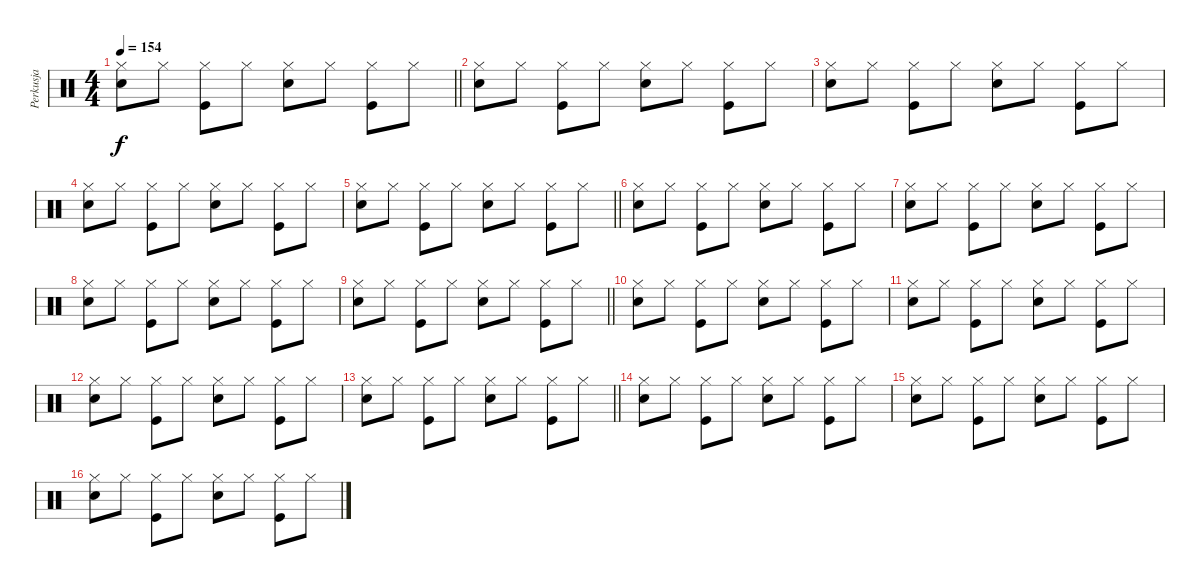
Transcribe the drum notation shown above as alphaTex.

\track ("Perkusja" "Perkusja") {instrument percussion}
\staff {score}
\articulation defaults
\ts (4 4)
\tempo 154
\clef neutral
\barLineRight lightlight
\ks c
("Hi-Hat (closed)" "Snare (hit) 2").8{dy f} "Hi-Hat (closed)".8 ("Hi-Hat (closed)" "Kick (hit)").8 "Hi-Hat (closed)".8 ("Snare (hit) 2" "Hi-Hat (closed)").8 "Hi-Hat (closed)".8 ("Hi-Hat (closed)" "Kick (hit)").8 "Hi-Hat (closed)".8 |
("Hi-Hat (closed)" "Snare (hit) 2").8 "Hi-Hat (closed)".8 ("Hi-Hat (closed)" "Kick (hit)").8 "Hi-Hat (closed)".8 ("Snare (hit) 2" "Hi-Hat (closed)").8 "Hi-Hat (closed)".8 ("Hi-Hat (closed)" "Kick (hit)").8 "Hi-Hat (closed)".8 |
("Hi-Hat (closed)" "Snare (hit) 2").8 "Hi-Hat (closed)".8 ("Hi-Hat (closed)" "Kick (hit)").8 "Hi-Hat (closed)".8 ("Snare (hit) 2" "Hi-Hat (closed)").8 "Hi-Hat (closed)".8 ("Hi-Hat (closed)" "Kick (hit)").8 "Hi-Hat (closed)".8 |
("Hi-Hat (closed)" "Snare (hit) 2").8 "Hi-Hat (closed)".8 ("Hi-Hat (closed)" "Kick (hit)").8 "Hi-Hat (closed)".8 ("Snare (hit) 2" "Hi-Hat (closed)").8 "Hi-Hat (closed)".8 ("Hi-Hat (closed)" "Kick (hit)").8 "Hi-Hat (closed)".8 |
\barLineRight lightlight
("Hi-Hat (closed)" "Snare (hit) 2").8 "Hi-Hat (closed)".8 ("Hi-Hat (closed)" "Kick (hit)").8 "Hi-Hat (closed)".8 ("Snare (hit) 2" "Hi-Hat (closed)").8 "Hi-Hat (closed)".8 ("Hi-Hat (closed)" "Kick (hit)").8 "Hi-Hat (closed)".8 |
("Hi-Hat (closed)" "Snare (hit) 2").8 "Hi-Hat (closed)".8 ("Hi-Hat (closed)" "Kick (hit)").8 "Hi-Hat (closed)".8 ("Snare (hit) 2" "Hi-Hat (closed)").8 "Hi-Hat (closed)".8 ("Hi-Hat (closed)" "Kick (hit)").8 "Hi-Hat (closed)".8 |
("Hi-Hat (closed)" "Snare (hit) 2").8 "Hi-Hat (closed)".8 ("Hi-Hat (closed)" "Kick (hit)").8 "Hi-Hat (closed)".8 ("Snare (hit) 2" "Hi-Hat (closed)").8 "Hi-Hat (closed)".8 ("Hi-Hat (closed)" "Kick (hit)").8 "Hi-Hat (closed)".8 |
("Hi-Hat (closed)" "Snare (hit) 2").8 "Hi-Hat (closed)".8 ("Hi-Hat (closed)" "Kick (hit)").8 "Hi-Hat (closed)".8 ("Snare (hit) 2" "Hi-Hat (closed)").8 "Hi-Hat (closed)".8 ("Hi-Hat (closed)" "Kick (hit)").8 "Hi-Hat (closed)".8 |
\barLineRight lightlight
("Hi-Hat (closed)" "Snare (hit) 2").8 "Hi-Hat (closed)".8 ("Hi-Hat (closed)" "Kick (hit)").8 "Hi-Hat (closed)".8 ("Snare (hit) 2" "Hi-Hat (closed)").8 "Hi-Hat (closed)".8 ("Hi-Hat (closed)" "Kick (hit)").8 "Hi-Hat (closed)".8 |
("Hi-Hat (closed)" "Snare (hit) 2").8 "Hi-Hat (closed)".8 ("Hi-Hat (closed)" "Kick (hit)").8 "Hi-Hat (closed)".8 ("Snare (hit) 2" "Hi-Hat (closed)").8 "Hi-Hat (closed)".8 ("Hi-Hat (closed)" "Kick (hit)").8 "Hi-Hat (closed)".8 |
("Hi-Hat (closed)" "Snare (hit) 2").8 "Hi-Hat (closed)".8 ("Hi-Hat (closed)" "Kick (hit)").8 "Hi-Hat (closed)".8 ("Snare (hit) 2" "Hi-Hat (closed)").8 "Hi-Hat (closed)".8 ("Hi-Hat (closed)" "Kick (hit)").8 "Hi-Hat (closed)".8 |
("Hi-Hat (closed)" "Snare (hit) 2").8 "Hi-Hat (closed)".8 ("Hi-Hat (closed)" "Kick (hit)").8 "Hi-Hat (closed)".8 ("Snare (hit) 2" "Hi-Hat (closed)").8 "Hi-Hat (closed)".8 ("Hi-Hat (closed)" "Kick (hit)").8 "Hi-Hat (closed)".8 |
\barLineRight lightlight
("Hi-Hat (closed)" "Snare (hit) 2").8 "Hi-Hat (closed)".8 ("Hi-Hat (closed)" "Kick (hit)").8 "Hi-Hat (closed)".8 ("Snare (hit) 2" "Hi-Hat (closed)").8 "Hi-Hat (closed)".8 ("Hi-Hat (closed)" "Kick (hit)").8 "Hi-Hat (closed)".8 |
("Hi-Hat (closed)" "Snare (hit) 2").8 "Hi-Hat (closed)".8 ("Hi-Hat (closed)" "Kick (hit)").8 "Hi-Hat (closed)".8 ("Snare (hit) 2" "Hi-Hat (closed)").8 "Hi-Hat (closed)".8 ("Hi-Hat (closed)" "Kick (hit)").8 "Hi-Hat (closed)".8 |
("Hi-Hat (closed)" "Snare (hit) 2").8 "Hi-Hat (closed)".8 ("Hi-Hat (closed)" "Kick (hit)").8 "Hi-Hat (closed)".8 ("Snare (hit) 2" "Hi-Hat (closed)").8 "Hi-Hat (closed)".8 ("Hi-Hat (closed)" "Kick (hit)").8 "Hi-Hat (closed)".8 |
("Hi-Hat (closed)" "Snare (hit) 2").8 "Hi-Hat (closed)".8 ("Hi-Hat (closed)" "Kick (hit)").8 "Hi-Hat (closed)".8 ("Snare (hit) 2" "Hi-Hat (closed)").8 "Hi-Hat (closed)".8 ("Hi-Hat (closed)" "Kick (hit)").8 "Hi-Hat (closed)".8
